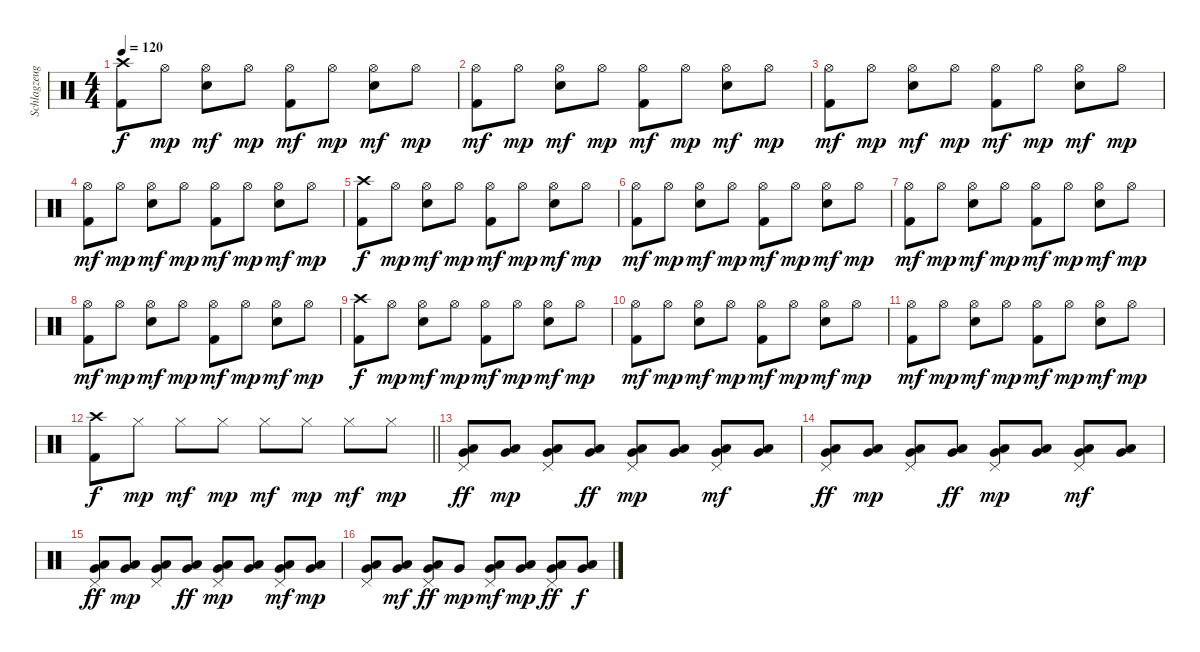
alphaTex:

\track ("Schlagzeug" "Schlagzeug") {instrument percussion}
\staff {score}
\articulation defaults
\ts (4 4)
\tempo 120
\clef neutral
\ks c
("Crash high (hit)" "Kick (hit) 2").8{dy f} "Hi-Hat (open)".8{dy mp} ("Hi-Hat (open)" "Electric Snare (hit)").8{dy mf} "Hi-Hat (open)".8{dy mp} ("Hi-Hat (open)" "Kick (hit) 2").8{dy mf} "Hi-Hat (open)".8{dy mp} ("Hi-Hat (open)" "Electric Snare (hit)").8{dy mf} "Hi-Hat (open)".8{dy mp} |
("Hi-Hat (open)" "Kick (hit) 2").8{dy mf} "Hi-Hat (open)".8{dy mp} ("Hi-Hat (open)" "Electric Snare (hit)").8{dy mf} "Hi-Hat (open)".8{dy mp} ("Hi-Hat (open)" "Kick (hit) 2").8{dy mf} "Hi-Hat (open)".8{dy mp} ("Hi-Hat (open)" "Electric Snare (hit)").8{dy mf} "Hi-Hat (open)".8{dy mp} |
("Hi-Hat (open)" "Kick (hit) 2").8{dy mf} "Hi-Hat (open)".8{dy mp} ("Hi-Hat (open)" "Electric Snare (hit)").8{dy mf} "Hi-Hat (open)".8{dy mp} ("Hi-Hat (open)" "Kick (hit) 2").8{dy mf} "Hi-Hat (open)".8{dy mp} ("Hi-Hat (open)" "Electric Snare (hit)").8{dy mf} "Hi-Hat (open)".8{dy mp} |
("Hi-Hat (open)" "Kick (hit) 2").8{dy mf} "Hi-Hat (open)".8{dy mp} ("Hi-Hat (open)" "Electric Snare (hit)").8{dy mf} "Hi-Hat (open)".8{dy mp} ("Hi-Hat (open)" "Kick (hit) 2").8{dy mf} "Hi-Hat (open)".8{dy mp} ("Hi-Hat (open)" "Electric Snare (hit)").8{dy mf} "Hi-Hat (open)".8{dy mp} |
("Crash high (hit)" "Kick (hit) 2").8{dy f} "Hi-Hat (open)".8{dy mp} ("Hi-Hat (open)" "Electric Snare (hit)").8{dy mf} "Hi-Hat (open)".8{dy mp} ("Hi-Hat (open)" "Kick (hit) 2").8{dy mf} "Hi-Hat (open)".8{dy mp} ("Hi-Hat (open)" "Electric Snare (hit)").8{dy mf} "Hi-Hat (open)".8{dy mp} |
("Hi-Hat (open)" "Kick (hit) 2").8{dy mf} "Hi-Hat (open)".8{dy mp} ("Hi-Hat (open)" "Electric Snare (hit)").8{dy mf} "Hi-Hat (open)".8{dy mp} ("Hi-Hat (open)" "Kick (hit) 2").8{dy mf} "Hi-Hat (open)".8{dy mp} ("Hi-Hat (open)" "Electric Snare (hit)").8{dy mf} "Hi-Hat (open)".8{dy mp} |
("Hi-Hat (open)" "Kick (hit) 2").8{dy mf} "Hi-Hat (open)".8{dy mp} ("Hi-Hat (open)" "Electric Snare (hit)").8{dy mf} "Hi-Hat (open)".8{dy mp} ("Hi-Hat (open)" "Kick (hit) 2").8{dy mf} "Hi-Hat (open)".8{dy mp} ("Hi-Hat (open)" "Electric Snare (hit)").8{dy mf} "Hi-Hat (open)".8{dy mp} |
("Hi-Hat (open)" "Kick (hit) 2").8{dy mf} "Hi-Hat (open)".8{dy mp} ("Hi-Hat (open)" "Electric Snare (hit)").8{dy mf} "Hi-Hat (open)".8{dy mp} ("Hi-Hat (open)" "Kick (hit) 2").8{dy mf} "Hi-Hat (open)".8{dy mp} ("Hi-Hat (open)" "Electric Snare (hit)").8{dy mf} "Hi-Hat (open)".8{dy mp} |
("Crash high (hit)" "Kick (hit) 2").8{dy f} "Hi-Hat (open)".8{dy mp} ("Hi-Hat (open)" "Electric Snare (hit)").8{dy mf} "Hi-Hat (open)".8{dy mp} ("Hi-Hat (open)" "Kick (hit) 2").8{dy mf} "Hi-Hat (open)".8{dy mp} ("Hi-Hat (open)" "Electric Snare (hit)").8{dy mf} "Hi-Hat (open)".8{dy mp} |
("Hi-Hat (open)" "Kick (hit) 2").8{dy mf} "Hi-Hat (open)".8{dy mp} ("Hi-Hat (open)" "Electric Snare (hit)").8{dy mf} "Hi-Hat (open)".8{dy mp} ("Hi-Hat (open)" "Kick (hit) 2").8{dy mf} "Hi-Hat (open)".8{dy mp} ("Hi-Hat (open)" "Electric Snare (hit)").8{dy mf} "Hi-Hat (open)".8{dy mp} |
("Hi-Hat (open)" "Kick (hit) 2").8{dy mf} "Hi-Hat (open)".8{dy mp} ("Hi-Hat (open)" "Electric Snare (hit)").8{dy mf} "Hi-Hat (open)".8{dy mp} ("Hi-Hat (open)" "Kick (hit) 2").8{dy mf} "Hi-Hat (open)".8{dy mp} ("Hi-Hat (open)" "Electric Snare (hit)").8{dy mf} "Hi-Hat (open)".8{dy mp} |
\barLineRight lightlight
("Crash high (hit)" "Kick (hit) 2").8{dy f} "Hi-Hat (closed)".8{dy mp} "Hi-Hat (closed)".8{dy mf} "Hi-Hat (closed)".8{dy mp} "Hi-Hat (closed)".8{dy mf} "Hi-Hat (closed)".8{dy mp} "Hi-Hat (closed)".8{dy mf} "Hi-Hat (closed)".8{dy mp} |
("Pedal Hi-Hat (hit)" "Very Low Tom (hit)" "Low Floor Tom (hit)").8{dy ff} ("Very Low Tom (hit)" "Low Floor Tom (hit)").8{dy mp} ("Pedal Hi-Hat (hit)" "Very Low Tom (hit)" "Low Floor Tom (hit)").8 ("Very Low Tom (hit)" "Low Floor Tom (hit)").8{dy ff} ("Pedal Hi-Hat (hit)" "Very Low Tom (hit)" "Low Floor Tom (hit)").8{dy mp} ("Very Low Tom (hit)" "Low Floor Tom (hit)").8 ("Pedal Hi-Hat (hit)" "Very Low Tom (hit)" "Low Floor Tom (hit)").8{dy mf} ("Very Low Tom (hit)" "Low Floor Tom (hit)").8 |
("Pedal Hi-Hat (hit)" "Very Low Tom (hit)" "Low Floor Tom (hit)").8{dy ff} ("Very Low Tom (hit)" "Low Floor Tom (hit)").8{dy mp} ("Pedal Hi-Hat (hit)" "Very Low Tom (hit)" "Low Floor Tom (hit)").8 ("Very Low Tom (hit)" "Low Floor Tom (hit)").8{dy ff} ("Pedal Hi-Hat (hit)" "Very Low Tom (hit)" "Low Floor Tom (hit)").8{dy mp} ("Very Low Tom (hit)" "Low Floor Tom (hit)").8 ("Pedal Hi-Hat (hit)" "Very Low Tom (hit)" "Low Floor Tom (hit)").8{dy mf} ("Very Low Tom (hit)" "Low Floor Tom (hit)").8 |
("Pedal Hi-Hat (hit)" "Very Low Tom (hit)" "Low Floor Tom (hit)").8{dy ff} ("Very Low Tom (hit)" "Low Floor Tom (hit)").8{dy mp} ("Pedal Hi-Hat (hit)" "Very Low Tom (hit)" "Low Floor Tom (hit)").8 ("Very Low Tom (hit)" "Low Floor Tom (hit)").8{dy ff} ("Pedal Hi-Hat (hit)" "Very Low Tom (hit)" "Low Floor Tom (hit)").8{dy mp} ("Very Low Tom (hit)" "Low Floor Tom (hit)").8 ("Pedal Hi-Hat (hit)" "Very Low Tom (hit)" "Low Floor Tom (hit)").8{dy mf} ("Very Low Tom (hit)" "Low Floor Tom (hit)").8{dy mp} |
("Pedal Hi-Hat (hit)" "Very Low Tom (hit)" "Low Floor Tom (hit)").8 ("Very Low Tom (hit)" "Low Floor Tom (hit)").8{dy mf} ("Pedal Hi-Hat (hit)" "Very Low Tom (hit)" "Low Floor Tom (hit)").8{dy ff} "Very Low Tom (hit)".8{dy mp} ("Pedal Hi-Hat (hit)" "Very Low Tom (hit)" "Low Floor Tom (hit)").8{dy mf} ("Very Low Tom (hit)" "Low Floor Tom (hit)").8{dy mp} ("Pedal Hi-Hat (hit)" "Very Low Tom (hit)" "Low Floor Tom (hit)").8{dy ff} ("Very Low Tom (hit)" "Low Floor Tom (hit)").8{dy f}
